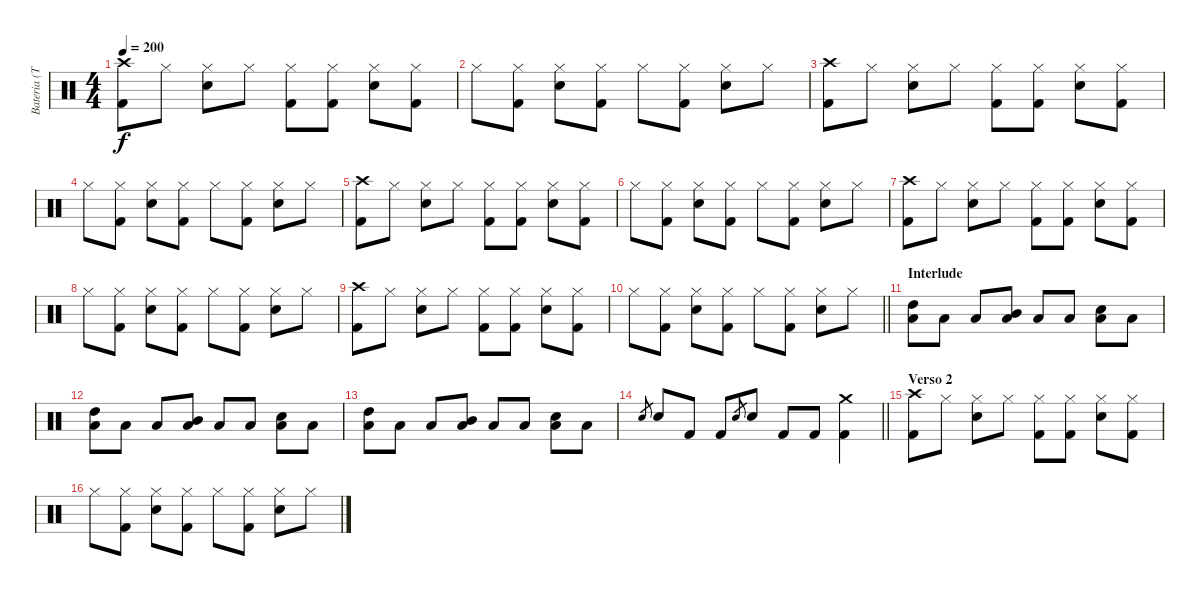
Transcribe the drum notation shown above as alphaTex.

\track ("Bateria (Tré)" "Bateria (T") {instrument percussion}
\staff {score}
\articulation defaults
\ts (4 4)
\tempo 200
\clef neutral
\ks c
("Crash high (hit)" "Kick (hit) 2").8{dy f} "Hi-Hat (closed)".8 ("Hi-Hat (closed)" "Electric Snare (hit)").8 "Hi-Hat (closed)".8 ("Hi-Hat (closed)" "Kick (hit) 2").8 ("Hi-Hat (closed)" "Kick (hit) 2").8 ("Hi-Hat (closed)" "Electric Snare (hit)").8 ("Hi-Hat (closed)" "Kick (hit) 2").8 |
"Hi-Hat (closed)".8 ("Hi-Hat (closed)" "Kick (hit) 2").8 ("Hi-Hat (closed)" "Electric Snare (hit)").8 ("Hi-Hat (closed)" "Kick (hit) 2").8 "Hi-Hat (closed)".8 ("Hi-Hat (closed)" "Kick (hit) 2").8 ("Hi-Hat (closed)" "Electric Snare (hit)").8 "Hi-Hat (closed)".8 |
("Crash high (hit)" "Kick (hit) 2").8 "Hi-Hat (closed)".8 ("Hi-Hat (closed)" "Electric Snare (hit)").8 "Hi-Hat (closed)".8 ("Hi-Hat (closed)" "Kick (hit) 2").8 ("Hi-Hat (closed)" "Kick (hit) 2").8 ("Hi-Hat (closed)" "Electric Snare (hit)").8 ("Hi-Hat (closed)" "Kick (hit) 2").8 |
"Hi-Hat (closed)".8 ("Hi-Hat (closed)" "Kick (hit) 2").8 ("Hi-Hat (closed)" "Electric Snare (hit)").8 ("Hi-Hat (closed)" "Kick (hit) 2").8 "Hi-Hat (closed)".8 ("Hi-Hat (closed)" "Kick (hit) 2").8 ("Hi-Hat (closed)" "Electric Snare (hit)").8 "Hi-Hat (closed)".8 |
("Crash high (hit)" "Kick (hit) 2").8 "Hi-Hat (closed)".8 ("Hi-Hat (closed)" "Electric Snare (hit)").8 "Hi-Hat (closed)".8 ("Hi-Hat (closed)" "Kick (hit) 2").8 ("Hi-Hat (closed)" "Kick (hit) 2").8 ("Hi-Hat (closed)" "Electric Snare (hit)").8 ("Hi-Hat (closed)" "Kick (hit) 2").8 |
"Hi-Hat (closed)".8 ("Hi-Hat (closed)" "Kick (hit) 2").8 ("Hi-Hat (closed)" "Electric Snare (hit)").8 ("Hi-Hat (closed)" "Kick (hit) 2").8 "Hi-Hat (closed)".8 ("Hi-Hat (closed)" "Kick (hit) 2").8 ("Hi-Hat (closed)" "Electric Snare (hit)").8 "Hi-Hat (closed)".8 |
("Crash high (hit)" "Kick (hit) 2").8 "Hi-Hat (closed)".8 ("Hi-Hat (closed)" "Electric Snare (hit)").8 "Hi-Hat (closed)".8 ("Hi-Hat (closed)" "Kick (hit) 2").8 ("Hi-Hat (closed)" "Kick (hit) 2").8 ("Hi-Hat (closed)" "Electric Snare (hit)").8 ("Hi-Hat (closed)" "Kick (hit) 2").8 |
"Hi-Hat (closed)".8 ("Hi-Hat (closed)" "Kick (hit) 2").8 ("Hi-Hat (closed)" "Electric Snare (hit)").8 ("Hi-Hat (closed)" "Kick (hit) 2").8 "Hi-Hat (closed)".8 ("Hi-Hat (closed)" "Kick (hit) 2").8 ("Hi-Hat (closed)" "Electric Snare (hit)").8 "Hi-Hat (closed)".8 |
("Crash high (hit)" "Kick (hit) 2").8 "Hi-Hat (closed)".8 ("Hi-Hat (closed)" "Electric Snare (hit)").8 "Hi-Hat (closed)".8 ("Hi-Hat (closed)" "Kick (hit) 2").8 ("Hi-Hat (closed)" "Kick (hit) 2").8 ("Hi-Hat (closed)" "Electric Snare (hit)").8 ("Hi-Hat (closed)" "Kick (hit) 2").8 |
\barLineRight lightlight "Hi-Hat (closed)".8
("Hi-Hat (closed)" "Kick (hit) 2").8 ("Hi-Hat (closed)" "Electric Snare (hit)").8 ("Hi-Hat (closed)" "Kick (hit) 2").8 "Hi-Hat (closed)".8 ("Hi-Hat (closed)" "Kick (hit) 2").8 ("Hi-Hat (closed)" "Electric Snare (hit)").8 "Hi-Hat (closed)".8 |
\section ("" "Interlude")
("Low Floor Tom (hit)" "High Tom (hit)").8 "Low Floor Tom (hit)".8 "Low Floor Tom (hit)".8 ("Low Floor Tom (hit)" "Mid Tom (hit)").8 "Low Floor Tom (hit)".8 "Low Floor Tom (hit)".8 ("Low Floor Tom (hit)" "Electric Snare (hit)").8 "Low Floor Tom (hit)".8 |
("Low Floor Tom (hit)" "High Tom (hit)").8 "Low Floor Tom (hit)".8 "Low Floor Tom (hit)".8 ("Low Floor Tom (hit)" "Mid Tom (hit)").8 "Low Floor Tom (hit)".8 "Low Floor Tom (hit)".8 ("Low Floor Tom (hit)" "Electric Snare (hit)").8 "Low Floor Tom (hit)".8 |
("Low Floor Tom (hit)" "High Tom (hit)").8 "Low Floor Tom (hit)".8 "Low Floor Tom (hit)".8 ("Low Floor Tom (hit)" "Mid Tom (hit)").8 "Low Floor Tom (hit)".8 "Low Floor Tom (hit)".8 ("Low Floor Tom (hit)" "Electric Snare (hit)").8 "Low Floor Tom (hit)".8 |
\barLineRight lightlight "Electric Snare (hit)".8{gr} "Electric Snare (hit)".8 "Kick (hit) 2".8 "Kick (hit) 2".8 "Electric Snare (hit)".8{gr} "Electric Snare (hit)".8 "Kick (hit) 2".8 "Kick (hit) 2".8
("Kick (hit) 2" "Crash medium (hit)").4 |
\section ("" "Verso 2")
("Crash high (hit)" "Kick (hit) 2").8 "Hi-Hat (closed)".8 ("Hi-Hat (closed)" "Electric Snare (hit)").8 "Hi-Hat (closed)".8 ("Hi-Hat (closed)" "Kick (hit) 2").8 ("Hi-Hat (closed)" "Kick (hit) 2").8 ("Hi-Hat (closed)" "Electric Snare (hit)").8 ("Hi-Hat (closed)" "Kick (hit) 2").8 |
"Hi-Hat (closed)".8 ("Hi-Hat (closed)" "Kick (hit) 2").8 ("Hi-Hat (closed)" "Electric Snare (hit)").8 ("Hi-Hat (closed)" "Kick (hit) 2").8 "Hi-Hat (closed)".8 ("Hi-Hat (closed)" "Kick (hit) 2").8 ("Hi-Hat (closed)" "Electric Snare (hit)").8 "Hi-Hat (closed)".8
